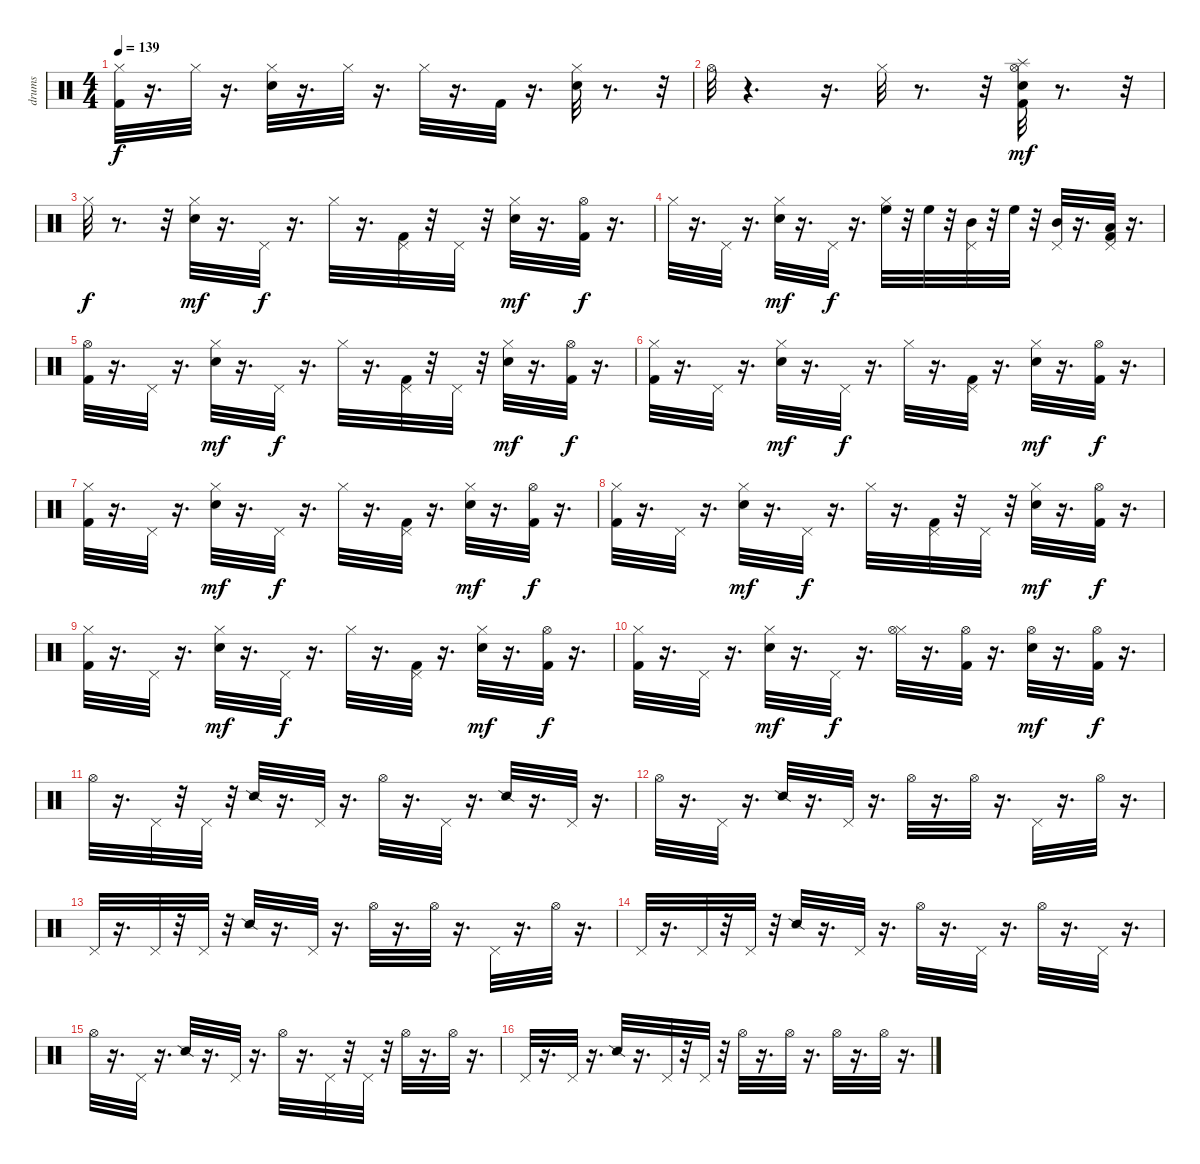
\track ("drums" "drums") {instrument percussion}
\staff {score}
\articulation defaults
\ts (4 4)
\tempo 139
\clef neutral
\ks c
("Kick (hit) 2" "Hi-Hat (closed)").32{dy f} r.16{d} "Hi-Hat (closed)".32 r.16{d} ("Hi-Hat (closed)" "Snare (hit) 2").32 r.16{d} "Hi-Hat (closed)".32 r.16{d} "Hi-Hat (closed)".32 r.16{d} "Kick (hit) 2".32 r.16{d} ("Hi-Hat (closed)" "Snare (hit) 2").32 r.8{d} r.32 |
"Hi-Hat (open)".32 r.4{d} r.16{d} "Hi-Hat (closed)".32 r.8{d} r.32 ("Hi-Hat (open)" "Kick (hit) 2" "Snare (hit) 2" "Splash (hit)").32{dy mf} r.8{d} r.32 |
"Hi-Hat (closed)".32{dy f} r.8{d} r.32 ("Snare (hit) 2" "Hi-Hat (closed)").32{dy mf} r.16{d} "Pedal Hi-Hat (hit)".32{dy f} r.16{d} "Hi-Hat (closed)".32 r.16{d} ("Pedal Hi-Hat (hit)" "Kick (hit) 2").32 r.32 "Pedal Hi-Hat (hit)".32 r.32 ("Snare (hit) 2" "Hi-Hat (closed)").32{dy mf} r.16{d} ("Kick (hit) 2" "Hi-Hat (open)").32{dy f} r.16{d} |
"Hi-Hat (closed)".32 r.16{d} "Pedal Hi-Hat (hit)".32 r.16{d} ("Hi-Hat (closed)" "Snare (hit) 2").32{dy mf} r.16{d} "Pedal Hi-Hat (hit)".32{dy f} r.16{d} ("Hi-Hat (closed)" "High Floor Tom (hit)").32 r.32 "High Floor Tom (hit)".32 r.32 ("Pedal Hi-Hat (hit)" "Mid Tom (hit)").32 r.32 "High Floor Tom (hit)".32 r.32 ("Mid Tom (hit)" "Pedal Hi-Hat (hit)").32 r.16{d} ("Pedal Hi-Hat (hit)" "Kick (hit) 2" "Low Tom (hit)").32 r.16{d} |
("Hi-Hat (open)" "Kick (hit) 2").32 r.16{d} "Pedal Hi-Hat (hit)".32 r.16{d} ("Hi-Hat (closed)" "Snare (hit) 2").32{dy mf} r.16{d} "Pedal Hi-Hat (hit)".32{dy f} r.16{d} "Hi-Hat (closed)".32 r.16{d} ("Pedal Hi-Hat (hit)" "Kick (hit) 2").32 r.32 "Pedal Hi-Hat (hit)".32 r.32 ("Snare (hit) 2" "Hi-Hat (closed)").32{dy mf} r.16{d} ("Kick (hit) 2" "Hi-Hat (open)").32{dy f} r.16{d} |
("Hi-Hat (closed)" "Kick (hit) 2").32 r.16{d} "Pedal Hi-Hat (hit)".32 r.16{d} ("Snare (hit) 2" "Hi-Hat (closed)").32{dy mf} r.16{d} "Pedal Hi-Hat (hit)".32{dy f} r.16{d} "Hi-Hat (closed)".32 r.16{d} ("Pedal Hi-Hat (hit)" "Kick (hit) 2").32 r.16{d} ("Hi-Hat (closed)" "Snare (hit) 2").32{dy mf} r.16{d} ("Hi-Hat (open)" "Kick (hit) 2").32{dy f} r.16{d} |
("Hi-Hat (closed)" "Kick (hit) 2").32 r.16{d} "Pedal Hi-Hat (hit)".32 r.16{d} ("Hi-Hat (closed)" "Snare (hit) 2").32{dy mf} r.16{d} "Pedal Hi-Hat (hit)".32{dy f} r.16{d} "Hi-Hat (closed)".32 r.16{d} ("Pedal Hi-Hat (hit)" "Kick (hit) 2").32 r.16{d} ("Snare (hit) 2" "Hi-Hat (closed)").32{dy mf} r.16{d} ("Hi-Hat (open)" "Kick (hit) 2").32{dy f} r.16{d} |
("Hi-Hat (closed)" "Kick (hit) 2").32 r.16{d} "Pedal Hi-Hat (hit)".32 r.16{d} ("Hi-Hat (closed)" "Snare (hit) 2").32{dy mf} r.16{d} "Pedal Hi-Hat (hit)".32{dy f} r.16{d} "Hi-Hat (closed)".32 r.16{d} ("Kick (hit) 2" "Pedal Hi-Hat (hit)").32 r.32 "Pedal Hi-Hat (hit)".32 r.32 ("Snare (hit) 2" "Hi-Hat (closed)").32{dy mf} r.16{d} ("Hi-Hat (open)" "Kick (hit) 2").32{dy f} r.16{d} |
("Kick (hit) 2" "Hi-Hat (closed)").32 r.16{d} "Pedal Hi-Hat (hit)".32 r.16{d} ("Hi-Hat (closed)" "Snare (hit) 2").32{dy mf} r.16{d} "Pedal Hi-Hat (hit)".32{dy f} r.16{d} "Hi-Hat (closed)".32 r.16{d} ("Pedal Hi-Hat (hit)" "Kick (hit) 2").32 r.16{d} ("Snare (hit) 2" "Hi-Hat (closed)").32{dy mf} r.16{d} ("Kick (hit) 2" "Hi-Hat (open)").32{dy f} r.16{d} |
("Kick (hit) 2" "Hi-Hat (closed)").32 r.16{d} "Pedal Hi-Hat (hit)".32 r.16{d} ("Snare (hit) 2" "Hi-Hat (closed)").32{dy mf} r.16{d} "Pedal Hi-Hat (hit)".32{dy f} r.16{d} ("Hi-Hat (closed)" "Hi-Hat (open)").32 r.16{d} ("Hi-Hat (open)" "Kick (hit) 2").32 r.16{d} ("Hi-Hat (open)" "Snare (hit) 2").32{dy mf} r.16{d} ("Hi-Hat (open)" "Kick (hit) 2").32{dy f} r.16{d} |
"Hi-Hat (open)".32 r.16{d} "Pedal Hi-Hat (hit)".32 r.32 "Pedal Hi-Hat (hit)".32 r.32 "Snare (side stick) 2".32 r.16{d} "Pedal Hi-Hat (hit)".32 r.16{d} "Hi-Hat (open)".32 r.16{d} "Pedal Hi-Hat (hit)".32 r.16{d} "Snare (side stick) 2".32 r.16{d} "Pedal Hi-Hat (hit)".32 r.16{d} |
"Hi-Hat (open)".32 r.16{d} "Pedal Hi-Hat (hit)".32 r.16{d} "Snare (side stick) 2".32 r.16{d} "Pedal Hi-Hat (hit)".32 r.16{d} "Hi-Hat (open)".32 r.16{d} "Hi-Hat (open)".32 r.16{d} "Pedal Hi-Hat (hit)".32 r.16{d} "Hi-Hat (open)".32 r.16{d} |
"Pedal Hi-Hat (hit)".32 r.16{d} "Pedal Hi-Hat (hit)".32 r.32 "Pedal Hi-Hat (hit)".32 r.32 "Snare (side stick) 2".32 r.16{d} "Pedal Hi-Hat (hit)".32 r.16{d} "Hi-Hat (open)".32 r.16{d} "Hi-Hat (open)".32 r.16{d} "Pedal Hi-Hat (hit)".32 r.16{d} "Hi-Hat (open)".32 r.16{d} |
"Pedal Hi-Hat (hit)".32 r.16{d} "Pedal Hi-Hat (hit)".32 r.32 "Pedal Hi-Hat (hit)".32 r.32 "Snare (side stick) 2".32 r.16{d} "Pedal Hi-Hat (hit)".32 r.16{d} "Hi-Hat (open)".32 r.16{d} "Pedal Hi-Hat (hit)".32 r.16{d} "Hi-Hat (open)".32 r.16{d} "Pedal Hi-Hat (hit)".32 r.16{d} |
"Hi-Hat (open)".32 r.16{d} "Pedal Hi-Hat (hit)".32 r.16{d} "Snare (side stick) 2".32 r.16{d} "Pedal Hi-Hat (hit)".32 r.16{d} "Hi-Hat (open)".32 r.16{d} "Pedal Hi-Hat (hit)".32 r.32 "Pedal Hi-Hat (hit)".32 r.32 "Hi-Hat (open)".32 r.16{d} "Hi-Hat (open)".32 r.16{d} |
"Pedal Hi-Hat (hit)".32 r.16{d} "Pedal Hi-Hat (hit)".32 r.16{d} "Snare (side stick) 2".32 r.16{d} "Pedal Hi-Hat (hit)".32 r.32 "Pedal Hi-Hat (hit)".32 r.32 "Hi-Hat (open)".32 r.16{d} "Hi-Hat (open)".32 r.16{d} "Hi-Hat (open)".32 r.16{d} "Hi-Hat (open)".32 r.16{d}
